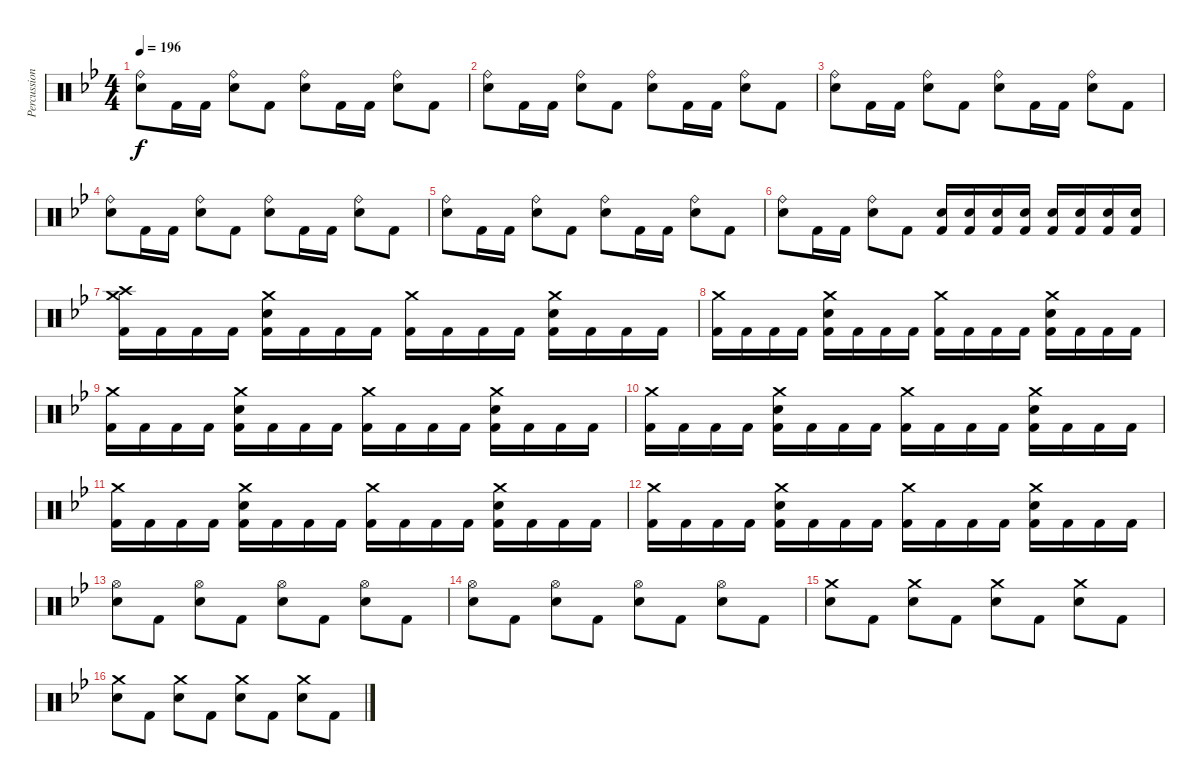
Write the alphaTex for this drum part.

\track ("Percussion" "Percussion") {instrument percussion}
\staff {score}
\articulation defaults
\ts (4 4)
\tempo 196
\clef neutral
\ks bb
("Ride (bell)" "Electric Snare (hit)").8{dy f} "Kick (hit) 2".16 "Kick (hit) 2".16 ("Ride (bell)" "Electric Snare (hit)").8 "Kick (hit) 2".8 ("Ride (bell)" "Electric Snare (hit)").8 "Kick (hit) 2".16 "Kick (hit) 2".16 ("Ride (bell)" "Electric Snare (hit)").8 "Kick (hit) 2".8 |
("Ride (bell)" "Electric Snare (hit)").8 "Kick (hit) 2".16 "Kick (hit) 2".16 ("Ride (bell)" "Electric Snare (hit)").8 "Kick (hit) 2".8 ("Ride (bell)" "Electric Snare (hit)").8 "Kick (hit) 2".16 "Kick (hit) 2".16 ("Ride (bell)" "Electric Snare (hit)").8 "Kick (hit) 2".8 |
("Ride (bell)" "Electric Snare (hit)").8 "Kick (hit) 2".16 "Kick (hit) 2".16 ("Ride (bell)" "Electric Snare (hit)").8 "Kick (hit) 2".8 ("Ride (bell)" "Electric Snare (hit)").8 "Kick (hit) 2".16 "Kick (hit) 2".16 ("Ride (bell)" "Electric Snare (hit)").8 "Kick (hit) 2".8 |
("Ride (bell)" "Electric Snare (hit)").8 "Kick (hit) 2".16 "Kick (hit) 2".16 ("Ride (bell)" "Electric Snare (hit)").8 "Kick (hit) 2".8 ("Ride (bell)" "Electric Snare (hit)").8 "Kick (hit) 2".16 "Kick (hit) 2".16 ("Ride (bell)" "Electric Snare (hit)").8 "Kick (hit) 2".8 |
("Ride (bell)" "Electric Snare (hit)").8 "Kick (hit) 2".16 "Kick (hit) 2".16 ("Ride (bell)" "Electric Snare (hit)").8 "Kick (hit) 2".8 ("Ride (bell)" "Electric Snare (hit)").8 "Kick (hit) 2".16 "Kick (hit) 2".16 ("Ride (bell)" "Electric Snare (hit)").8 "Kick (hit) 2".8 |
("Ride (bell)" "Electric Snare (hit)").8 "Kick (hit) 2".16 "Kick (hit) 2".16 ("Ride (bell)" "Electric Snare (hit)").8 "Kick (hit) 2".8 ("Electric Snare (hit)" "Kick (hit) 2").16 ("Electric Snare (hit)" "Kick (hit) 2").16 ("Electric Snare (hit)" "Kick (hit) 2").16 ("Electric Snare (hit)" "Kick (hit) 2").16 ("Electric Snare (hit)" "Kick (hit) 2").16 ("Electric Snare (hit)" "Kick (hit) 2").16 ("Electric Snare (hit)" "Kick (hit) 2").16 ("Electric Snare (hit)" "Kick (hit) 2").16 |
("Crash medium (hit)" "Crash high (hit)" "Kick (hit) 2").16 "Kick (hit) 2".16 "Kick (hit) 2".16 "Kick (hit) 2".16 ("Crash medium (hit)" "Electric Snare (hit)" "Kick (hit) 2").16 "Kick (hit) 2".16 "Kick (hit) 2".16 "Kick (hit) 2".16 ("Crash medium (hit)" "Kick (hit) 2").16 "Kick (hit) 2".16 "Kick (hit) 2".16 "Kick (hit) 2".16 ("Crash medium (hit)" "Electric Snare (hit)" "Kick (hit) 2").16 "Kick (hit) 2".16 "Kick (hit) 2".16 "Kick (hit) 2".16 |
("Crash medium (hit)" "Kick (hit) 2").16 "Kick (hit) 2".16 "Kick (hit) 2".16 "Kick (hit) 2".16 ("Crash medium (hit)" "Electric Snare (hit)" "Kick (hit) 2").16 "Kick (hit) 2".16 "Kick (hit) 2".16 "Kick (hit) 2".16 ("Crash medium (hit)" "Kick (hit) 2").16 "Kick (hit) 2".16 "Kick (hit) 2".16 "Kick (hit) 2".16 ("Crash medium (hit)" "Electric Snare (hit)" "Kick (hit) 2").16 "Kick (hit) 2".16 "Kick (hit) 2".16 "Kick (hit) 2".16 |
("Crash medium (hit)" "Kick (hit) 2").16 "Kick (hit) 2".16 "Kick (hit) 2".16 "Kick (hit) 2".16 ("Crash medium (hit)" "Electric Snare (hit)" "Kick (hit) 2").16 "Kick (hit) 2".16 "Kick (hit) 2".16 "Kick (hit) 2".16 ("Crash medium (hit)" "Kick (hit) 2").16 "Kick (hit) 2".16 "Kick (hit) 2".16 "Kick (hit) 2".16 ("Crash medium (hit)" "Electric Snare (hit)" "Kick (hit) 2").16 "Kick (hit) 2".16 "Kick (hit) 2".16 "Kick (hit) 2".16 |
("Crash medium (hit)" "Kick (hit) 2").16 "Kick (hit) 2".16 "Kick (hit) 2".16 "Kick (hit) 2".16 ("Crash medium (hit)" "Electric Snare (hit)" "Kick (hit) 2").16 "Kick (hit) 2".16 "Kick (hit) 2".16 "Kick (hit) 2".16 ("Crash medium (hit)" "Kick (hit) 2").16 "Kick (hit) 2".16 "Kick (hit) 2".16 "Kick (hit) 2".16 ("Crash medium (hit)" "Electric Snare (hit)" "Kick (hit) 2").16 "Kick (hit) 2".16 "Kick (hit) 2".16 "Kick (hit) 2".16 |
("Crash medium (hit)" "Kick (hit) 2").16 "Kick (hit) 2".16 "Kick (hit) 2".16 "Kick (hit) 2".16 ("Crash medium (hit)" "Electric Snare (hit)" "Kick (hit) 2").16 "Kick (hit) 2".16 "Kick (hit) 2".16 "Kick (hit) 2".16 ("Crash medium (hit)" "Kick (hit) 2").16 "Kick (hit) 2".16 "Kick (hit) 2".16 "Kick (hit) 2".16 ("Crash medium (hit)" "Electric Snare (hit)" "Kick (hit) 2").16 "Kick (hit) 2".16 "Kick (hit) 2".16 "Kick (hit) 2".16 |
("Crash medium (hit)" "Kick (hit) 2").16 "Kick (hit) 2".16 "Kick (hit) 2".16 "Kick (hit) 2".16 ("Crash medium (hit)" "Electric Snare (hit)" "Kick (hit) 2").16 "Kick (hit) 2".16 "Kick (hit) 2".16 "Kick (hit) 2".16 ("Crash medium (hit)" "Kick (hit) 2").16 "Kick (hit) 2".16 "Kick (hit) 2".16 "Kick (hit) 2".16 ("Crash medium (hit)" "Electric Snare (hit)" "Kick (hit) 2").16 "Kick (hit) 2".16 "Kick (hit) 2".16 "Kick (hit) 2".16 |
("Hi-Hat (open)" "Electric Snare (hit)").8 "Kick (hit) 2".8 ("Hi-Hat (open)" "Electric Snare (hit)").8 "Kick (hit) 2".8 ("Hi-Hat (open)" "Electric Snare (hit)").8 "Kick (hit) 2".8 ("Hi-Hat (open)" "Electric Snare (hit)").8 "Kick (hit) 2".8 |
("Hi-Hat (open)" "Electric Snare (hit)").8 "Kick (hit) 2".8 ("Hi-Hat (open)" "Electric Snare (hit)").8 "Kick (hit) 2".8 ("Hi-Hat (open)" "Electric Snare (hit)").8 "Kick (hit) 2".8 ("Hi-Hat (open)" "Electric Snare (hit)").8 "Kick (hit) 2".8 |
("Crash medium (hit)" "Electric Snare (hit)").8 "Kick (hit) 2".8 ("Crash medium (hit)" "Electric Snare (hit)").8 "Kick (hit) 2".8 ("Crash medium (hit)" "Electric Snare (hit)").8 "Kick (hit) 2".8 ("Crash medium (hit)" "Electric Snare (hit)").8 "Kick (hit) 2".8 |
("Crash medium (hit)" "Electric Snare (hit)").8 "Kick (hit) 2".8 ("Crash medium (hit)" "Electric Snare (hit)").8 "Kick (hit) 2".8 ("Crash medium (hit)" "Electric Snare (hit)").8 "Kick (hit) 2".8 ("Crash medium (hit)" "Electric Snare (hit)").8 "Kick (hit) 2".8
